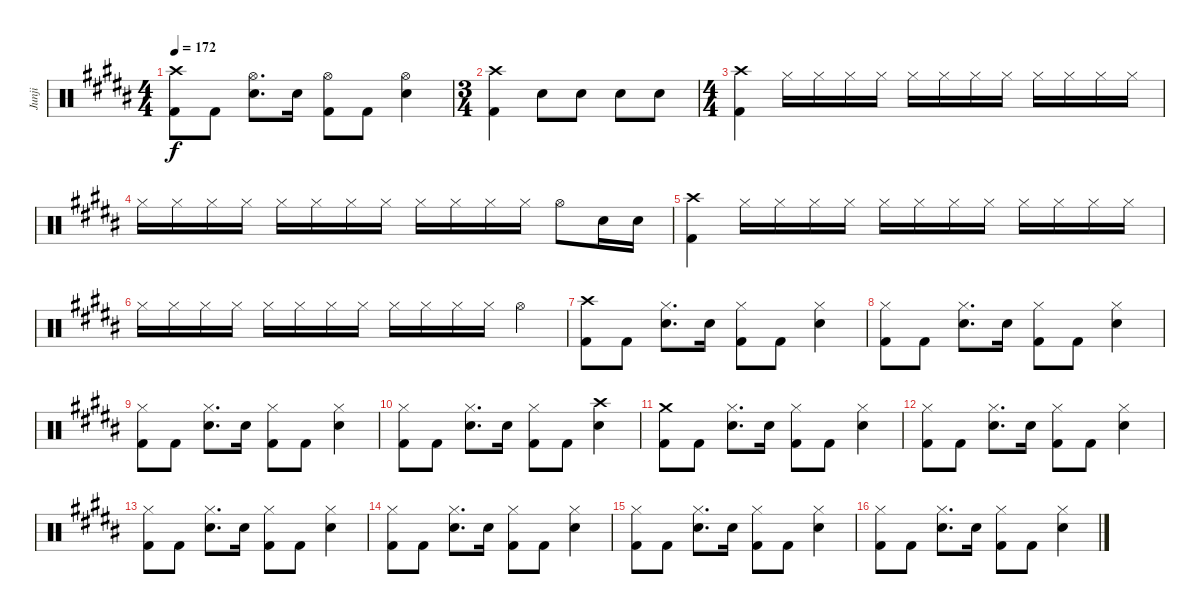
\track ("Junji" "Junji") {instrument percussion}
\staff {score}
\articulation defaults
\ts (4 4)
\tempo 172
\clef neutral
\ks b
("Crash high (hit)" "Kick (hit) 2").8{dy f} "Kick (hit) 2".8 ("Hi-Hat (open)" "Snare (hit) 2").8{d} "Snare (hit) 2".16 ("Hi-Hat (open)" "Kick (hit) 2").8 "Kick (hit) 2".8 ("Hi-Hat (open)" "Snare (hit) 2").4 |
\ts (3 4)
("Crash high (hit)" "Kick (hit) 2").4 "Snare (hit) 2".8 "Snare (hit) 2".8 "Snare (hit) 2".8 "Snare (hit) 2".8 |
\ts (4 4)
("Crash high (hit)" "Kick (hit) 2").4 "Hi-Hat (closed)".16 "Hi-Hat (closed)".16 "Hi-Hat (closed)".16 "Hi-Hat (closed)".16 "Hi-Hat (closed)".16 "Hi-Hat (closed)".16 "Hi-Hat (closed)".16 "Hi-Hat (closed)".16 "Hi-Hat (closed)".16 "Hi-Hat (closed)".16 "Hi-Hat (closed)".16 "Hi-Hat (closed)".16 |
"Hi-Hat (closed)".16 "Hi-Hat (closed)".16 "Hi-Hat (closed)".16 "Hi-Hat (closed)".16 "Hi-Hat (closed)".16 "Hi-Hat (closed)".16 "Hi-Hat (closed)".16 "Hi-Hat (closed)".16 "Hi-Hat (closed)".16 "Hi-Hat (closed)".16 "Hi-Hat (closed)".16 "Hi-Hat (closed)".16 "Hi-Hat (open)".8 "Snare (hit) 2".16 "Snare (hit) 2".16 |
("Crash high (hit)" "Kick (hit) 2").4 "Hi-Hat (closed)".16 "Hi-Hat (closed)".16 "Hi-Hat (closed)".16 "Hi-Hat (closed)".16 "Hi-Hat (closed)".16 "Hi-Hat (closed)".16 "Hi-Hat (closed)".16 "Hi-Hat (closed)".16 "Hi-Hat (closed)".16 "Hi-Hat (closed)".16 "Hi-Hat (closed)".16 "Hi-Hat (closed)".16 |
"Hi-Hat (closed)".16 "Hi-Hat (closed)".16 "Hi-Hat (closed)".16 "Hi-Hat (closed)".16 "Hi-Hat (closed)".16 "Hi-Hat (closed)".16 "Hi-Hat (closed)".16 "Hi-Hat (closed)".16 "Hi-Hat (closed)".16 "Hi-Hat (closed)".16 "Hi-Hat (closed)".16 "Hi-Hat (closed)".16 "Hi-Hat (open)".4 |
("Crash high (hit)" "Kick (hit) 2").8 "Kick (hit) 2".8 ("Hi-Hat (closed)" "Snare (hit) 2").8{d} "Snare (hit) 2".16 ("Hi-Hat (closed)" "Kick (hit) 2").8 "Kick (hit) 2".8 ("Hi-Hat (closed)" "Snare (hit) 2").4 |
("Hi-Hat (closed)" "Kick (hit) 2").8 "Kick (hit) 2".8 ("Hi-Hat (closed)" "Snare (hit) 2").8{d} "Snare (hit) 2".16 ("Hi-Hat (closed)" "Kick (hit) 2").8 "Kick (hit) 2".8 ("Hi-Hat (closed)" "Snare (hit) 2").4 |
("Hi-Hat (closed)" "Kick (hit) 2").8 "Kick (hit) 2".8 ("Hi-Hat (closed)" "Snare (hit) 2").8{d} "Snare (hit) 2".16 ("Hi-Hat (closed)" "Kick (hit) 2").8 "Kick (hit) 2".8 ("Hi-Hat (closed)" "Snare (hit) 2").4 |
("Hi-Hat (closed)" "Kick (hit) 2").8 "Kick (hit) 2".8 ("Hi-Hat (closed)" "Snare (hit) 2").8{d} "Snare (hit) 2".16 ("Hi-Hat (closed)" "Kick (hit) 2").8 "Kick (hit) 2".8 ("Crash high (hit)" "Snare (hit) 2").4 |
("Crash medium (hit)" "Kick (hit) 2").8 "Kick (hit) 2".8 ("Hi-Hat (closed)" "Snare (hit) 2").8{d} "Snare (hit) 2".16 ("Hi-Hat (closed)" "Kick (hit) 2").8 "Kick (hit) 2".8 ("Hi-Hat (closed)" "Snare (hit) 2").4 |
("Hi-Hat (closed)" "Kick (hit) 2").8 "Kick (hit) 2".8 ("Hi-Hat (closed)" "Snare (hit) 2").8{d} "Snare (hit) 2".16 ("Hi-Hat (closed)" "Kick (hit) 2").8 "Kick (hit) 2".8 ("Hi-Hat (closed)" "Snare (hit) 2").4 |
("Hi-Hat (closed)" "Kick (hit) 2").8 "Kick (hit) 2".8 ("Hi-Hat (closed)" "Snare (hit) 2").8{d} "Snare (hit) 2".16 ("Hi-Hat (closed)" "Kick (hit) 2").8 "Kick (hit) 2".8 ("Hi-Hat (closed)" "Snare (hit) 2").4 |
("Hi-Hat (closed)" "Kick (hit) 2").8 "Kick (hit) 2".8 ("Hi-Hat (closed)" "Snare (hit) 2").8{d} "Snare (hit) 2".16 ("Hi-Hat (closed)" "Kick (hit) 2").8 "Kick (hit) 2".8 ("Hi-Hat (closed)" "Snare (hit) 2").4 |
("Hi-Hat (closed)" "Kick (hit) 2").8 "Kick (hit) 2".8 ("Hi-Hat (closed)" "Snare (hit) 2").8{d} "Snare (hit) 2".16 ("Hi-Hat (closed)" "Kick (hit) 2").8 "Kick (hit) 2".8 ("Hi-Hat (closed)" "Snare (hit) 2").4 |
("Hi-Hat (closed)" "Kick (hit) 2").8 "Kick (hit) 2".8 ("Hi-Hat (closed)" "Snare (hit) 2").8{d} "Snare (hit) 2".16 ("Hi-Hat (closed)" "Kick (hit) 2").8 "Kick (hit) 2".8 ("Hi-Hat (closed)" "Snare (hit) 2").4
